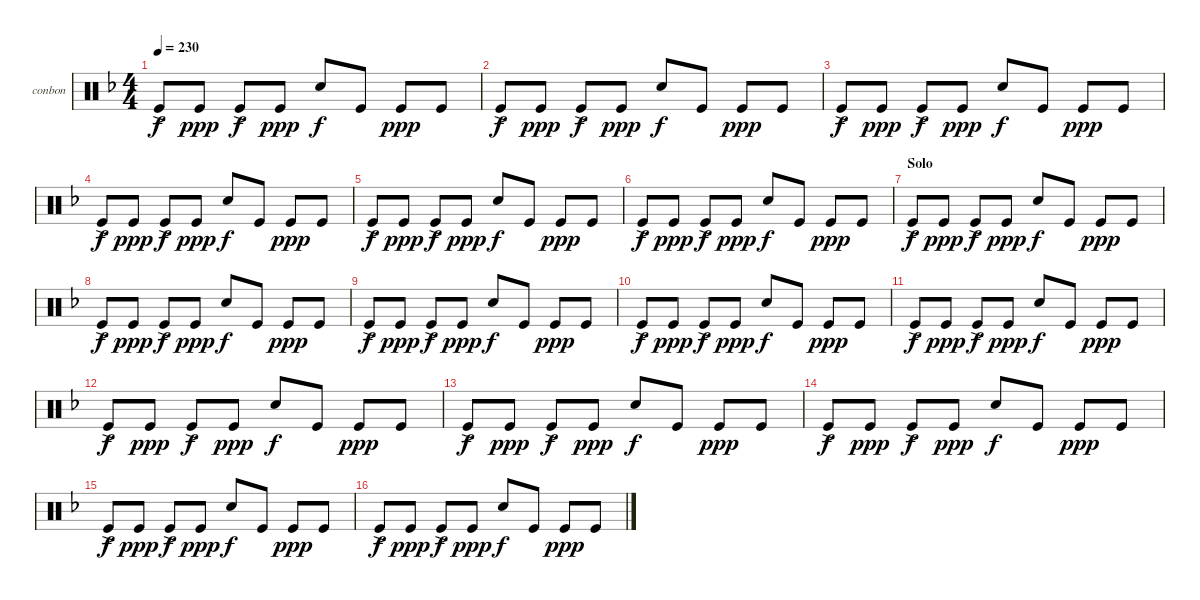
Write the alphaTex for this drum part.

\defaultSystemsLayout 4
\bracketExtendMode groupsimilarinstruments
\firstSystemTrackNameOrientation horizontal
\otherSystemsTrackNameOrientation horizontal
\track ("Bongos N Congas" "conbon") {instrument percussion}
\staff {score}
\articulation defaults
\ts (4 4)
\tempo 230
\clef neutral
\ks dminor "Kick (hit)"{ac}.8{dy f} "Kick (hit)".8{dy ppp} "Kick (hit)"{ac}.8{dy f} "Kick (hit)".8{dy ppp} "Snare (hit) 2".8{dy f} "Kick (hit)".8 "Kick (hit)".8{dy ppp} "Kick (hit)".8
|
"Kick (hit)"{ac}.8{dy f} "Kick (hit)".8{dy ppp} "Kick (hit)"{ac}.8{dy f} "Kick (hit)".8{dy ppp} "Snare (hit) 2".8{dy f} "Kick (hit)".8 "Kick (hit)".8{dy ppp} "Kick (hit)".8 |
"Kick (hit)"{ac}.8{dy f} "Kick (hit)".8{dy ppp} "Kick (hit)"{ac}.8{dy f} "Kick (hit)".8{dy ppp} "Snare (hit) 2".8{dy f} "Kick (hit)".8 "Kick (hit)".8{dy ppp} "Kick (hit)".8 |
"Kick (hit)"{ac}.8{dy f} "Kick (hit)".8{dy ppp} "Kick (hit)"{ac}.8{dy f} "Kick (hit)".8{dy ppp} "Snare (hit) 2".8{dy f} "Kick (hit)".8 "Kick (hit)".8{dy ppp} "Kick (hit)".8 |
"Kick (hit)"{ac}.8{dy f} "Kick (hit)".8{dy ppp} "Kick (hit)"{ac}.8{dy f} "Kick (hit)".8{dy ppp} "Snare (hit) 2".8{dy f} "Kick (hit)".8 "Kick (hit)".8{dy ppp} "Kick (hit)".8 |
"Kick (hit)"{ac}.8{dy f} "Kick (hit)".8{dy ppp} "Kick (hit)"{ac}.8{dy f} "Kick (hit)".8{dy ppp} "Snare (hit) 2".8{dy f} "Kick (hit)".8 "Kick (hit)".8{dy ppp} "Kick (hit)".8 |
\section ("" "Solo")
"Kick (hit)"{ac}.8{dy f} "Kick (hit)".8{dy ppp} "Kick (hit)"{ac}.8{dy f} "Kick (hit)".8{dy ppp} "Snare (hit) 2".8{dy f} "Kick (hit)".8 "Kick (hit)".8{dy ppp} "Kick (hit)".8 |
"Kick (hit)"{ac}.8{dy f} "Kick (hit)".8{dy ppp} "Kick (hit)"{ac}.8{dy f} "Kick (hit)".8{dy ppp} "Snare (hit) 2".8{dy f} "Kick (hit)".8 "Kick (hit)".8{dy ppp} "Kick (hit)".8 |
"Kick (hit)"{ac}.8{dy f} "Kick (hit)".8{dy ppp} "Kick (hit)"{ac}.8{dy f} "Kick (hit)".8{dy ppp} "Snare (hit) 2".8{dy f} "Kick (hit)".8 "Kick (hit)".8{dy ppp} "Kick (hit)".8 |
"Kick (hit)"{ac}.8{dy f} "Kick (hit)".8{dy ppp} "Kick (hit)"{ac}.8{dy f} "Kick (hit)".8{dy ppp} "Snare (hit) 2".8{dy f} "Kick (hit)".8 "Kick (hit)".8{dy ppp} "Kick (hit)".8 |
"Kick (hit)"{ac}.8{dy f} "Kick (hit)".8{dy ppp} "Kick (hit)"{ac}.8{dy f} "Kick (hit)".8{dy ppp} "Snare (hit) 2".8{dy f} "Kick (hit)".8 "Kick (hit)".8{dy ppp} "Kick (hit)".8 |
"Kick (hit)"{ac}.8{dy f} "Kick (hit)".8{dy ppp} "Kick (hit)"{ac}.8{dy f} "Kick (hit)".8{dy ppp} "Snare (hit) 2".8{dy f} "Kick (hit)".8 "Kick (hit)".8{dy ppp} "Kick (hit)".8 |
"Kick (hit)"{ac}.8{dy f} "Kick (hit)".8{dy ppp} "Kick (hit)"{ac}.8{dy f} "Kick (hit)".8{dy ppp} "Snare (hit) 2".8{dy f} "Kick (hit)".8 "Kick (hit)".8{dy ppp} "Kick (hit)".8 |
"Kick (hit)"{ac}.8{dy f} "Kick (hit)".8{dy ppp} "Kick (hit)"{ac}.8{dy f} "Kick (hit)".8{dy ppp} "Snare (hit) 2".8{dy f} "Kick (hit)".8 "Kick (hit)".8{dy ppp} "Kick (hit)".8 |
"Kick (hit)"{ac}.8{dy f} "Kick (hit)".8{dy ppp} "Kick (hit)"{ac}.8{dy f} "Kick (hit)".8{dy ppp} "Snare (hit) 2".8{dy f} "Kick (hit)".8 "Kick (hit)".8{dy ppp} "Kick (hit)".8 |
"Kick (hit)"{ac}.8{dy f} "Kick (hit)".8{dy ppp} "Kick (hit)"{ac}.8{dy f} "Kick (hit)".8{dy ppp} "Snare (hit) 2".8{dy f} "Kick (hit)".8 "Kick (hit)".8{dy ppp} "Kick (hit)".8
